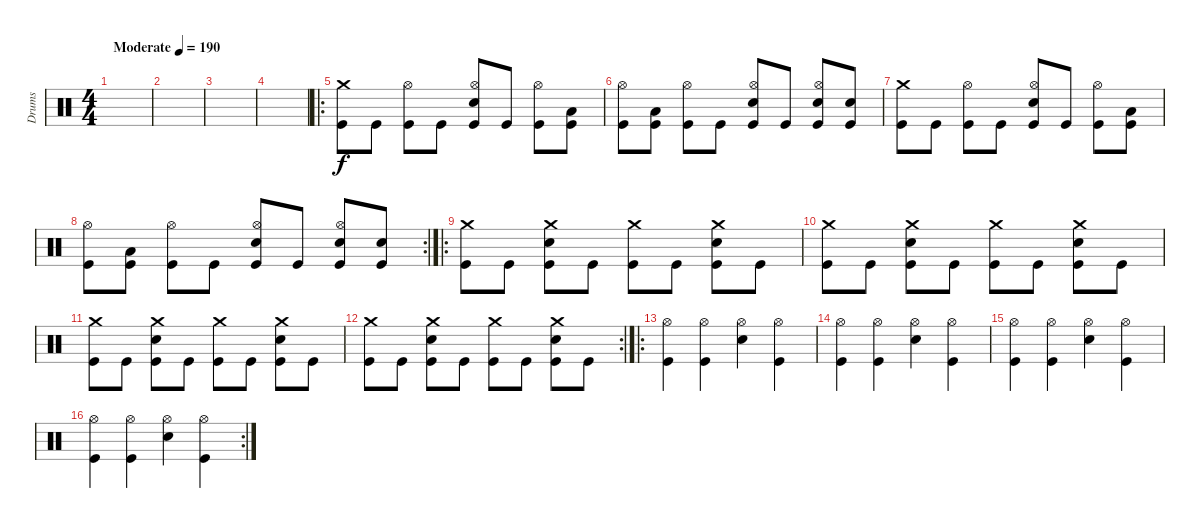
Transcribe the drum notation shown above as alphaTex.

\track ("Drums" "Drums") {instrument percussion}
\staff {score}
\articulation defaults
\ts (4 4)
\tempo (190 "Moderate")
\clef neutral
\ks c
|
|
|
|
\ro
("Crash medium (hit)" "Kick (hit)").8 "Kick (hit)".8 ("Hi-Hat (open)" "Kick (hit)").8 "Kick (hit)".8 ("Hi-Hat (open)" "Snare (hit) 2" "Kick (hit)").8 "Kick (hit)".8 ("Hi-Hat (open)" "Kick (hit)").8 ("Low Tom (hit)" "Kick (hit)").8 |
("Hi-Hat (open)" "Kick (hit)").8 ("Low Floor Tom (hit)" "Kick (hit)").8 ("Hi-Hat (open)" "Kick (hit)").8 "Kick (hit)".8 ("Hi-Hat (open)" "Snare (hit) 2" "Kick (hit)").8 "Kick (hit)".8 ("Hi-Hat (open)" "Snare (hit) 2" "Kick (hit)").8 ("Snare (hit) 2" "Kick (hit)").8 |
("Crash medium (hit)" "Kick (hit)").8 "Kick (hit)".8 ("Hi-Hat (open)" "Kick (hit)").8 "Kick (hit)".8 ("Hi-Hat (open)" "Snare (hit) 2" "Kick (hit)").8 "Kick (hit)".8 ("Hi-Hat (open)" "Kick (hit)").8 ("Low Tom (hit)" "Kick (hit)").8 |
\rc 2
("Hi-Hat (open)" "Kick (hit)").8 ("Low Floor Tom (hit)" "Kick (hit)").8 ("Hi-Hat (open)" "Kick (hit)").8 "Kick (hit)".8 ("Hi-Hat (open)" "Snare (hit) 2" "Kick (hit)").8 "Kick (hit)".8 ("Hi-Hat (open)" "Snare (hit) 2" "Kick (hit)").8 ("Snare (hit) 2" "Kick (hit)").8 |
\ro
("Crash medium (hit)" "Kick (hit)").8 "Kick (hit)".8 ("Crash medium (hit)" "Snare (hit) 2" "Kick (hit)").8 "Kick (hit)".8 ("Crash medium (hit)" "Kick (hit)").8 "Kick (hit)".8 ("Crash medium (hit)" "Snare (hit) 2" "Kick (hit)").8 "Kick (hit)".8 |
("Crash medium (hit)" "Kick (hit)").8 "Kick (hit)".8 ("Crash medium (hit)" "Snare (hit) 2" "Kick (hit)").8 "Kick (hit)".8 ("Crash medium (hit)" "Kick (hit)").8 "Kick (hit)".8 ("Crash medium (hit)" "Snare (hit) 2" "Kick (hit)").8 "Kick (hit)".8 |
("Crash medium (hit)" "Kick (hit)").8 "Kick (hit)".8 ("Crash medium (hit)" "Snare (hit) 2" "Kick (hit)").8 "Kick (hit)".8 ("Crash medium (hit)" "Kick (hit)").8 "Kick (hit)".8 ("Crash medium (hit)" "Snare (hit) 2" "Kick (hit)").8 "Kick (hit)".8 |
\rc 2
("Crash medium (hit)" "Kick (hit)").8 "Kick (hit)".8 ("Crash medium (hit)" "Snare (hit) 2" "Kick (hit)").8 "Kick (hit)".8 ("Crash medium (hit)" "Kick (hit)").8 "Kick (hit)".8 ("Crash medium (hit)" "Snare (hit) 2" "Kick (hit)").8 "Kick (hit)".8 |
\ro
("Hi-Hat (open)" "Kick (hit)").4 ("Hi-Hat (open)" "Kick (hit)").4 ("Hi-Hat (open)" "Snare (hit) 2").4 ("Hi-Hat (open)" "Kick (hit)").4 |
("Hi-Hat (open)" "Kick (hit)").4 ("Hi-Hat (open)" "Kick (hit)").4 ("Hi-Hat (open)" "Snare (hit) 2").4 ("Hi-Hat (open)" "Kick (hit)").4 |
("Hi-Hat (open)" "Kick (hit)").4 ("Hi-Hat (open)" "Kick (hit)").4 ("Hi-Hat (open)" "Snare (hit) 2").4 ("Hi-Hat (open)" "Kick (hit)").4 |
\rc 2
("Hi-Hat (open)" "Kick (hit)").4 ("Hi-Hat (open)" "Kick (hit)").4 ("Hi-Hat (open)" "Snare (hit) 2").4 ("Hi-Hat (open)" "Kick (hit)").4
